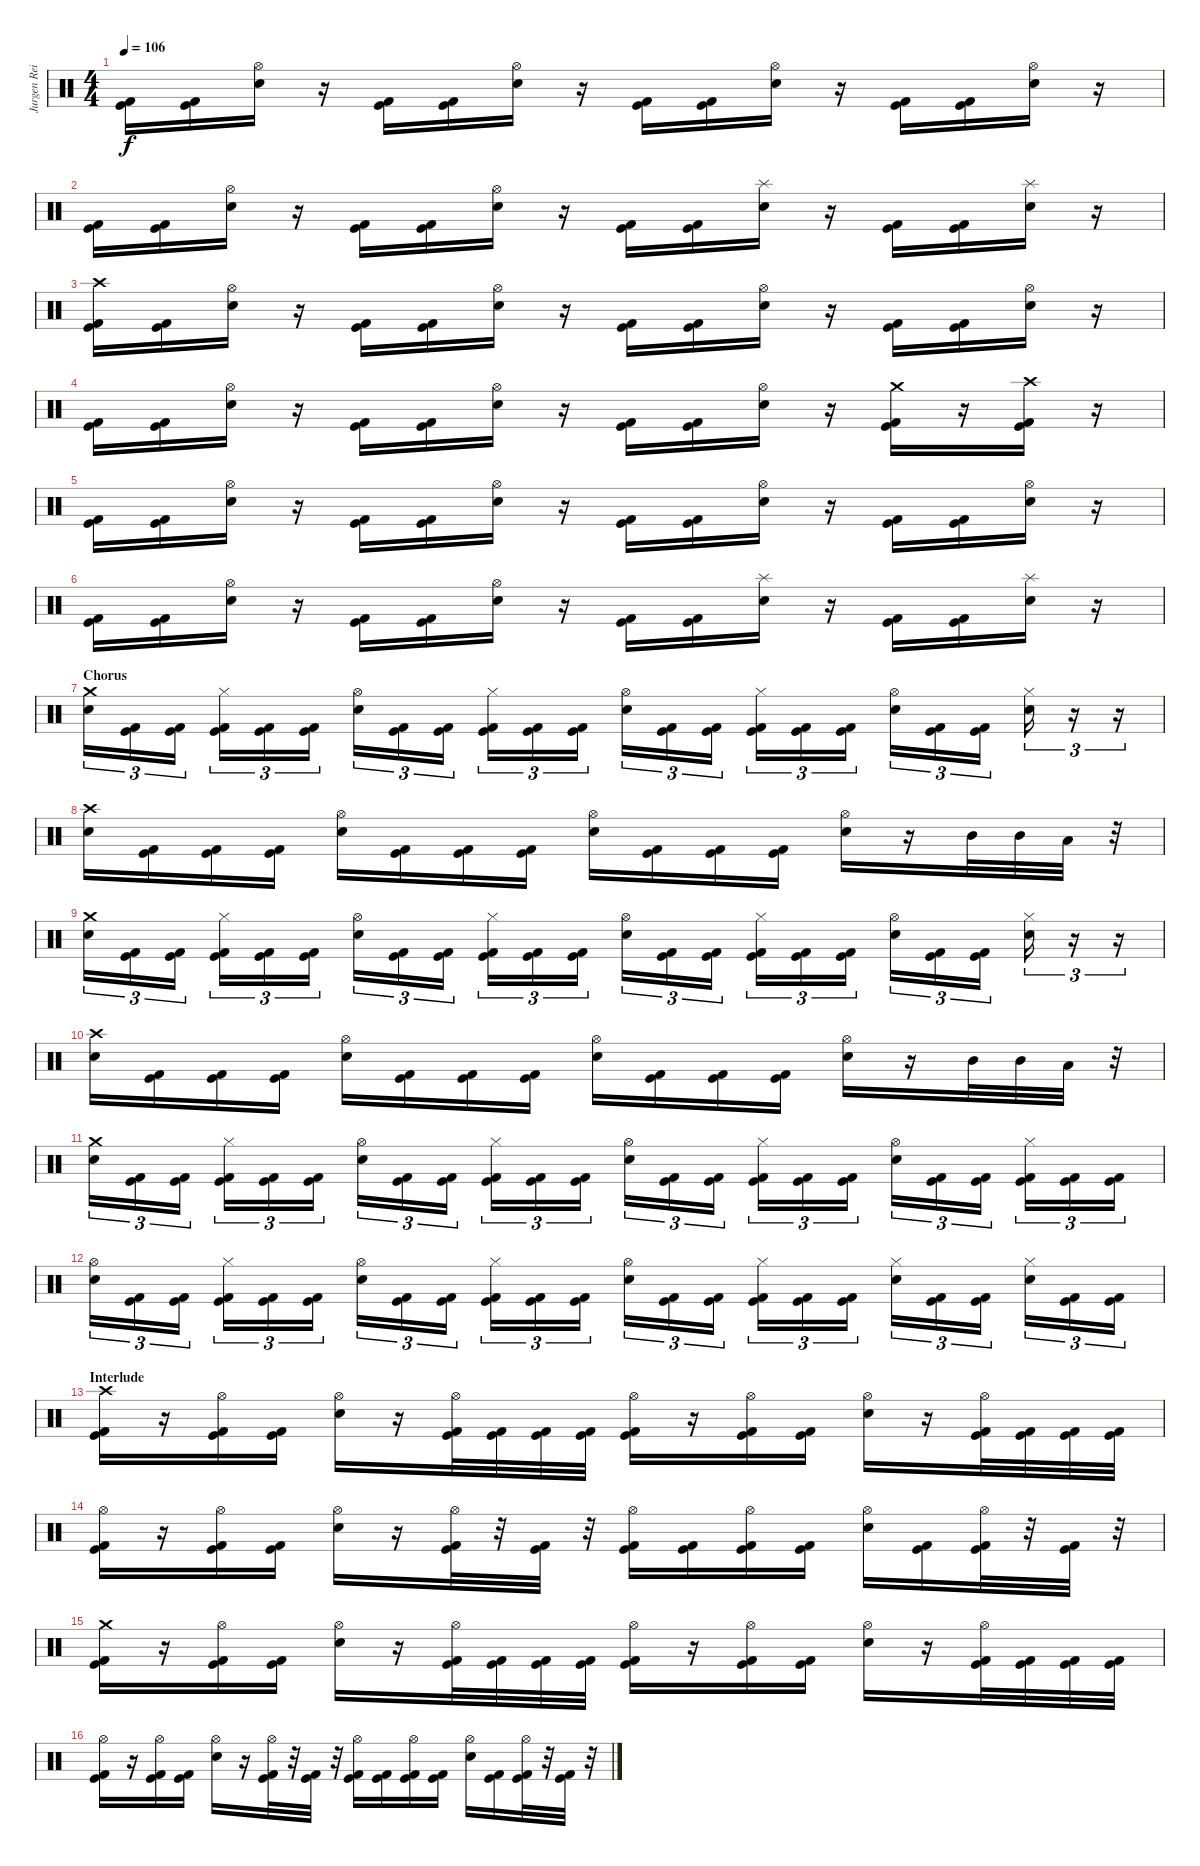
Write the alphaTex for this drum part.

\track ("Jurgen Reil" "Jurgen Rei") {instrument percussion}
\staff {score}
\articulation defaults
\ts (4 4)
\tempo 106
\clef neutral
\ks c
("Kick (hit)" "Kick (hit) 2").16{dy f} ("Kick (hit)" "Kick (hit) 2").16 ("Hi-Hat (open)" "Electric Snare (hit)").16 r.16 ("Kick (hit)" "Kick (hit) 2").16 ("Kick (hit)" "Kick (hit) 2").16 ("Hi-Hat (open)" "Electric Snare (hit)").16 r.16 ("Kick (hit)" "Kick (hit) 2").16 ("Kick (hit)" "Kick (hit) 2").16 ("Hi-Hat (open)" "Electric Snare (hit)").16 r.16 ("Kick (hit)" "Kick (hit) 2").16 ("Kick (hit)" "Kick (hit) 2").16 ("Hi-Hat (open)" "Electric Snare (hit)").16 r.16 |
("Kick (hit)" "Kick (hit) 2").16 ("Kick (hit)" "Kick (hit) 2").16 ("Hi-Hat (open)" "Electric Snare (hit)").16 r.16 ("Kick (hit)" "Kick (hit) 2").16 ("Kick (hit)" "Kick (hit) 2").16 ("Hi-Hat (open)" "Electric Snare (hit)").16 r.16 ("Kick (hit)" "Kick (hit) 2").16 ("Kick (hit)" "Kick (hit) 2").16 ("Splash (hit)" "Electric Snare (hit)").16 r.16 ("Kick (hit)" "Kick (hit) 2").16 ("Kick (hit)" "Kick (hit) 2").16 ("Splash (hit)" "Electric Snare (hit)").16 r.16 |
("Crash high (hit)" "Kick (hit)" "Kick (hit) 2").16 ("Kick (hit)" "Kick (hit) 2").16 ("Hi-Hat (open)" "Electric Snare (hit)").16 r.16 ("Kick (hit)" "Kick (hit) 2").16 ("Kick (hit)" "Kick (hit) 2").16 ("Hi-Hat (open)" "Electric Snare (hit)").16 r.16 ("Kick (hit)" "Kick (hit) 2").16 ("Kick (hit)" "Kick (hit) 2").16 ("Hi-Hat (open)" "Electric Snare (hit)").16 r.16 ("Kick (hit)" "Kick (hit) 2").16 ("Kick (hit)" "Kick (hit) 2").16 ("Hi-Hat (open)" "Electric Snare (hit)").16 r.16 |
("Kick (hit)" "Kick (hit) 2").16 ("Kick (hit)" "Kick (hit) 2").16 ("Hi-Hat (open)" "Electric Snare (hit)").16 r.16 ("Kick (hit)" "Kick (hit) 2").16 ("Kick (hit)" "Kick (hit) 2").16 ("Hi-Hat (open)" "Electric Snare (hit)").16 r.16 ("Kick (hit)" "Kick (hit) 2").16 ("Kick (hit)" "Kick (hit) 2").16 ("Hi-Hat (open)" "Electric Snare (hit)").16 r.16 ("Crash medium (hit)" "Kick (hit)" "Kick (hit) 2").16 r.16 ("Crash high (hit)" "Kick (hit)" "Kick (hit) 2").16 r.16 |
("Kick (hit)" "Kick (hit) 2").16 ("Kick (hit)" "Kick (hit) 2").16 ("Hi-Hat (open)" "Electric Snare (hit)").16 r.16 ("Kick (hit)" "Kick (hit) 2").16 ("Kick (hit)" "Kick (hit) 2").16 ("Hi-Hat (open)" "Electric Snare (hit)").16 r.16 ("Kick (hit)" "Kick (hit) 2").16 ("Kick (hit)" "Kick (hit) 2").16 ("Hi-Hat (open)" "Electric Snare (hit)").16 r.16 ("Kick (hit)" "Kick (hit) 2").16 ("Kick (hit)" "Kick (hit) 2").16 ("Hi-Hat (open)" "Electric Snare (hit)").16 r.16 |
("Kick (hit)" "Kick (hit) 2").16 ("Kick (hit)" "Kick (hit) 2").16 ("Hi-Hat (open)" "Electric Snare (hit)").16 r.16 ("Kick (hit)" "Kick (hit) 2").16 ("Kick (hit)" "Kick (hit) 2").16 ("Hi-Hat (open)" "Electric Snare (hit)").16 r.16 ("Kick (hit)" "Kick (hit) 2").16 ("Kick (hit)" "Kick (hit) 2").16 ("Splash (hit)" "Electric Snare (hit)").16 r.16 ("Kick (hit)" "Kick (hit) 2").16 ("Kick (hit)" "Kick (hit) 2").16 ("Splash (hit)" "Electric Snare (hit)").16 r.16 |
\section ("" "Chorus")
("Crash medium (hit)" "Electric Snare (hit)").16{tu (3 2)} ("Kick (hit)" "Kick (hit) 2").16{tu (3 2)} ("Kick (hit)" "Kick (hit) 2").16{tu (3 2)} ("Hi-Hat (closed)" "Kick (hit)" "Kick (hit) 2").16{tu (3 2)} ("Kick (hit)" "Kick (hit) 2").16{tu (3 2)} ("Kick (hit)" "Kick (hit) 2").16{tu (3 2)} ("Hi-Hat (open)" "Electric Snare (hit)").16{tu (3 2)} ("Kick (hit)" "Kick (hit) 2").16{tu (3 2)} ("Kick (hit)" "Kick (hit) 2").16{tu (3 2)} ("Hi-Hat (closed)" "Kick (hit)" "Kick (hit) 2").16{tu (3 2)} ("Kick (hit)" "Kick (hit) 2").16{tu (3 2)} ("Kick (hit)" "Kick (hit) 2").16{tu (3 2)} ("Hi-Hat (open)" "Electric Snare (hit)").16{tu (3 2)} ("Kick (hit)" "Kick (hit) 2").16{tu (3 2)} ("Kick (hit)" "Kick (hit) 2").16{tu (3 2)} ("Hi-Hat (closed)" "Kick (hit)" "Kick (hit) 2").16{tu (3 2)} ("Kick (hit)" "Kick (hit) 2").16{tu (3 2)} ("Kick (hit)" "Kick (hit) 2").16{tu (3 2)} ("Hi-Hat (open)" "Electric Snare (hit)").16{tu (3 2)} ("Kick (hit)" "Kick (hit) 2").16{tu (3 2)} ("Kick (hit)" "Kick (hit) 2").16{tu (3 2)} ("Hi-Hat (closed)" "Electric Snare (hit)").16{tu (3 2)} r.16{tu (3 2)} r.16{tu (3 2)} |
("Crash high (hit)" "Electric Snare (hit)").16 ("Kick (hit)" "Kick (hit) 2").16 ("Kick (hit)" "Kick (hit) 2").16 ("Kick (hit)" "Kick (hit) 2").16 ("Hi-Hat (open)" "Electric Snare (hit)").16 ("Kick (hit)" "Kick (hit) 2").16 ("Kick (hit)" "Kick (hit) 2").16 ("Kick (hit)" "Kick (hit) 2").16 ("Hi-Hat (open)" "Electric Snare (hit)").16 ("Kick (hit)" "Kick (hit) 2").16 ("Kick (hit)" "Kick (hit) 2").16 ("Kick (hit)" "Kick (hit) 2").16 ("Hi-Hat (open)" "Electric Snare (hit)").16 r.16 "Mid Tom (hit)".32 "Mid Tom (hit)".32 "Low Tom (hit)".32 r.32 |
("Crash medium (hit)" "Electric Snare (hit)").16{tu (3 2)} ("Kick (hit)" "Kick (hit) 2").16{tu (3 2)} ("Kick (hit)" "Kick (hit) 2").16{tu (3 2)} ("Hi-Hat (closed)" "Kick (hit)" "Kick (hit) 2").16{tu (3 2)} ("Kick (hit)" "Kick (hit) 2").16{tu (3 2)} ("Kick (hit)" "Kick (hit) 2").16{tu (3 2)} ("Hi-Hat (open)" "Electric Snare (hit)").16{tu (3 2)} ("Kick (hit)" "Kick (hit) 2").16{tu (3 2)} ("Kick (hit)" "Kick (hit) 2").16{tu (3 2)} ("Hi-Hat (closed)" "Kick (hit)" "Kick (hit) 2").16{tu (3 2)} ("Kick (hit)" "Kick (hit) 2").16{tu (3 2)} ("Kick (hit)" "Kick (hit) 2").16{tu (3 2)} ("Hi-Hat (open)" "Electric Snare (hit)").16{tu (3 2)} ("Kick (hit)" "Kick (hit) 2").16{tu (3 2)} ("Kick (hit)" "Kick (hit) 2").16{tu (3 2)} ("Hi-Hat (closed)" "Kick (hit)" "Kick (hit) 2").16{tu (3 2)} ("Kick (hit)" "Kick (hit) 2").16{tu (3 2)} ("Kick (hit)" "Kick (hit) 2").16{tu (3 2)} ("Hi-Hat (open)" "Electric Snare (hit)").16{tu (3 2)} ("Kick (hit)" "Kick (hit) 2").16{tu (3 2)} ("Kick (hit)" "Kick (hit) 2").16{tu (3 2)} ("Hi-Hat (closed)" "Electric Snare (hit)").16{tu (3 2)} r.16{tu (3 2)} r.16{tu (3 2)} |
("Crash high (hit)" "Electric Snare (hit)").16 ("Kick (hit)" "Kick (hit) 2").16 ("Kick (hit)" "Kick (hit) 2").16 ("Kick (hit)" "Kick (hit) 2").16 ("Hi-Hat (open)" "Electric Snare (hit)").16 ("Kick (hit)" "Kick (hit) 2").16 ("Kick (hit)" "Kick (hit) 2").16 ("Kick (hit)" "Kick (hit) 2").16 ("Hi-Hat (open)" "Electric Snare (hit)").16 ("Kick (hit)" "Kick (hit) 2").16 ("Kick (hit)" "Kick (hit) 2").16 ("Kick (hit)" "Kick (hit) 2").16 ("Hi-Hat (open)" "Electric Snare (hit)").16 r.16 "Mid Tom (hit)".32 "Mid Tom (hit)".32 "Low Tom (hit)".32 r.32 |
("Crash medium (hit)" "Electric Snare (hit)").16{tu (3 2)} ("Kick (hit)" "Kick (hit) 2").16{tu (3 2)} ("Kick (hit)" "Kick (hit) 2").16{tu (3 2)} ("Hi-Hat (closed)" "Kick (hit)" "Kick (hit) 2").16{tu (3 2)} ("Kick (hit)" "Kick (hit) 2").16{tu (3 2)} ("Kick (hit)" "Kick (hit) 2").16{tu (3 2)} ("Hi-Hat (open)" "Electric Snare (hit)").16{tu (3 2)} ("Kick (hit)" "Kick (hit) 2").16{tu (3 2)} ("Kick (hit)" "Kick (hit) 2").16{tu (3 2)} ("Hi-Hat (closed)" "Kick (hit)" "Kick (hit) 2").16{tu (3 2)} ("Kick (hit)" "Kick (hit) 2").16{tu (3 2)} ("Kick (hit)" "Kick (hit) 2").16{tu (3 2)} ("Hi-Hat (open)" "Electric Snare (hit)").16{tu (3 2)} ("Kick (hit)" "Kick (hit) 2").16{tu (3 2)} ("Kick (hit)" "Kick (hit) 2").16{tu (3 2)} ("Hi-Hat (closed)" "Kick (hit)" "Kick (hit) 2").16{tu (3 2)} ("Kick (hit)" "Kick (hit) 2").16{tu (3 2)} ("Kick (hit)" "Kick (hit) 2").16{tu (3 2)} ("Hi-Hat (open)" "Electric Snare (hit)").16{tu (3 2)} ("Kick (hit)" "Kick (hit) 2").16{tu (3 2)} ("Kick (hit)" "Kick (hit) 2").16{tu (3 2)} ("Hi-Hat (closed)" "Kick (hit)" "Kick (hit) 2").16{tu (3 2)} ("Kick (hit)" "Kick (hit) 2").16{tu (3 2)} ("Kick (hit)" "Kick (hit) 2").16{tu (3 2)} |
("Hi-Hat (open)" "Electric Snare (hit)").16{tu (3 2)} ("Kick (hit)" "Kick (hit) 2").16{tu (3 2)} ("Kick (hit)" "Kick (hit) 2").16{tu (3 2)} ("Hi-Hat (closed)" "Kick (hit)" "Kick (hit) 2").16{tu (3 2)} ("Kick (hit)" "Kick (hit) 2").16{tu (3 2)} ("Kick (hit)" "Kick (hit) 2").16{tu (3 2)} ("Hi-Hat (open)" "Electric Snare (hit)").16{tu (3 2)} ("Kick (hit)" "Kick (hit) 2").16{tu (3 2)} ("Kick (hit)" "Kick (hit) 2").16{tu (3 2)} ("Hi-Hat (closed)" "Kick (hit)" "Kick (hit) 2").16{tu (3 2)} ("Kick (hit)" "Kick (hit) 2").16{tu (3 2)} ("Kick (hit)" "Kick (hit) 2").16{tu (3 2)} ("Hi-Hat (open)" "Electric Snare (hit)").16{tu (3 2)} ("Kick (hit)" "Kick (hit) 2").16{tu (3 2)} ("Kick (hit)" "Kick (hit) 2").16{tu (3 2)} ("Hi-Hat (closed)" "Kick (hit)" "Kick (hit) 2").16{tu (3 2)} ("Kick (hit)" "Kick (hit) 2").16{tu (3 2)} ("Kick (hit)" "Kick (hit) 2").16{tu (3 2)} ("Hi-Hat (closed)" "Electric Snare (hit)").16{tu (3 2)} ("Kick (hit)" "Kick (hit) 2").16{tu (3 2)} ("Kick (hit)" "Kick (hit) 2").16{tu (3 2)} ("Hi-Hat (closed)" "Electric Snare (hit)").16{tu (3 2)} ("Kick (hit)" "Kick (hit) 2").16{tu (3 2)} ("Kick (hit)" "Kick (hit) 2").16{tu (3 2)} |
\section ("" "Interlude")
("Crash high (hit)" "Kick (hit)" "Kick (hit) 2").16 r.16 ("Hi-Hat (open)" "Kick (hit)" "Kick (hit) 2").16 ("Kick (hit)" "Kick (hit) 2").16 ("Hi-Hat (open)" "Electric Snare (hit)").16 r.16 ("Hi-Hat (open)" "Kick (hit)" "Kick (hit) 2").32 ("Kick (hit)" "Kick (hit) 2").32 ("Kick (hit)" "Kick (hit) 2").32 ("Kick (hit)" "Kick (hit) 2").32 ("Hi-Hat (open)" "Kick (hit)" "Kick (hit) 2").16 r.16 ("Hi-Hat (open)" "Kick (hit)" "Kick (hit) 2").16 ("Kick (hit)" "Kick (hit) 2").16 ("Hi-Hat (open)" "Electric Snare (hit)").16 r.16 ("Hi-Hat (open)" "Kick (hit)" "Kick (hit) 2").32 ("Kick (hit)" "Kick (hit) 2").32 ("Kick (hit)" "Kick (hit) 2").32 ("Kick (hit)" "Kick (hit) 2").32 |
("Hi-Hat (open)" "Kick (hit)" "Kick (hit) 2").16 r.16 ("Hi-Hat (open)" "Kick (hit)" "Kick (hit) 2").16 ("Kick (hit)" "Kick (hit) 2").16 ("Hi-Hat (open)" "Electric Snare (hit)").16 r.16 ("Hi-Hat (open)" "Kick (hit)" "Kick (hit) 2").32 r.32 ("Kick (hit)" "Kick (hit) 2").32 r.32 ("Hi-Hat (open)" "Kick (hit)" "Kick (hit) 2").16 ("Kick (hit)" "Kick (hit) 2").16 ("Hi-Hat (open)" "Kick (hit)" "Kick (hit) 2").16 ("Kick (hit)" "Kick (hit) 2").16 ("Hi-Hat (open)" "Electric Snare (hit)").16 ("Kick (hit)" "Kick (hit) 2").16 ("Hi-Hat (open)" "Kick (hit)" "Kick (hit) 2").32 r.32 ("Kick (hit)" "Kick (hit) 2").32 r.32 |
("Crash medium (hit)" "Kick (hit)" "Kick (hit) 2").16 r.16 ("Hi-Hat (open)" "Kick (hit)" "Kick (hit) 2").16 ("Kick (hit)" "Kick (hit) 2").16 ("Hi-Hat (open)" "Electric Snare (hit)").16 r.16 ("Hi-Hat (open)" "Kick (hit)" "Kick (hit) 2").32 ("Kick (hit)" "Kick (hit) 2").32 ("Kick (hit)" "Kick (hit) 2").32 ("Kick (hit)" "Kick (hit) 2").32 ("Hi-Hat (open)" "Kick (hit)" "Kick (hit) 2").16 r.16 ("Hi-Hat (open)" "Kick (hit)" "Kick (hit) 2").16 ("Kick (hit)" "Kick (hit) 2").16 ("Hi-Hat (open)" "Electric Snare (hit)").16 r.16 ("Hi-Hat (open)" "Kick (hit)" "Kick (hit) 2").32 ("Kick (hit)" "Kick (hit) 2").32 ("Kick (hit)" "Kick (hit) 2").32 ("Kick (hit)" "Kick (hit) 2").32 |
("Hi-Hat (open)" "Kick (hit)" "Kick (hit) 2").16 r.16 ("Hi-Hat (open)" "Kick (hit)" "Kick (hit) 2").16 ("Kick (hit)" "Kick (hit) 2").16 ("Hi-Hat (open)" "Electric Snare (hit)").16 r.16 ("Hi-Hat (open)" "Kick (hit)" "Kick (hit) 2").32 r.32 ("Kick (hit)" "Kick (hit) 2").32 r.32 ("Hi-Hat (open)" "Kick (hit)" "Kick (hit) 2").16 ("Kick (hit)" "Kick (hit) 2").16 ("Hi-Hat (open)" "Kick (hit)" "Kick (hit) 2").16 ("Kick (hit)" "Kick (hit) 2").16 ("Hi-Hat (open)" "Electric Snare (hit)").16 ("Kick (hit)" "Kick (hit) 2").16 ("Hi-Hat (open)" "Kick (hit)" "Kick (hit) 2").32 r.32 ("Kick (hit)" "Kick (hit) 2").32 r.32
